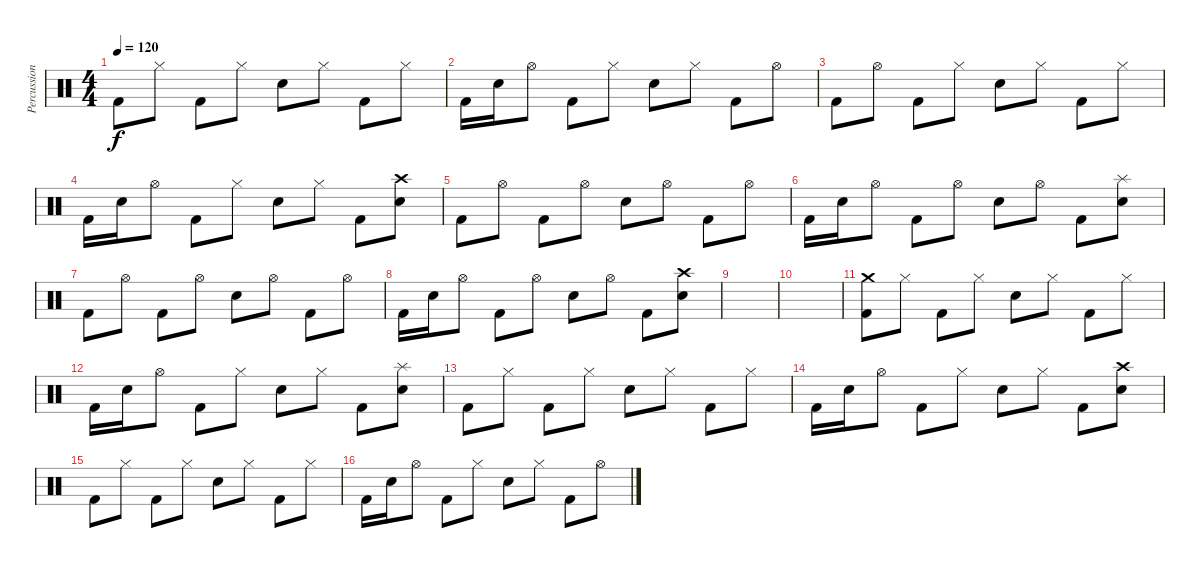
\track ("Percussion" "Percussion") {instrument percussion}
\staff {score}
\articulation defaults
\ts (4 4)
\tempo 120
\clef neutral
\ks c "Kick (hit) 2".8{dy f} "Hi-Hat (closed)".8 "Kick (hit) 2".8 "Hi-Hat (closed)".8 "Snare (hit) 2".8 "Hi-Hat (closed)".8 "Kick (hit) 2".8 "Hi-Hat (closed)".8
|
"Kick (hit) 2".16 "Snare (hit) 2".16 "Hi-Hat (open)".8 "Kick (hit) 2".8 "Hi-Hat (closed)".8 "Snare (hit) 2".8 "Hi-Hat (closed)".8 "Kick (hit) 2".8 "Hi-Hat (open)".8 |
"Kick (hit) 2".8 "Hi-Hat (open)".8 "Kick (hit) 2".8 "Hi-Hat (closed)".8 "Snare (hit) 2".8 "Hi-Hat (closed)".8 "Kick (hit) 2".8 "Hi-Hat (closed)".8 |
"Kick (hit) 2".16 "Snare (hit) 2".16 "Hi-Hat (open)".8 "Kick (hit) 2".8 "Hi-Hat (closed)".8 "Snare (hit) 2".8 "Hi-Hat (closed)".8 "Kick (hit) 2".8 ("Crash high (hit)" "Snare (hit) 2").8 |
"Kick (hit) 2".8 "Hi-Hat (open)".8 "Kick (hit) 2".8 "Hi-Hat (open)".8 "Snare (hit) 2".8 "Hi-Hat (open)".8 "Kick (hit) 2".8 "Hi-Hat (open)".8 |
"Kick (hit) 2".16 "Snare (hit) 2".16 "Hi-Hat (open)".8 "Kick (hit) 2".8 "Hi-Hat (open)".8 "Snare (hit) 2".8 "Hi-Hat (open)".8 "Kick (hit) 2".8 ("Splash (hit)" "Snare (hit) 2").8 |
"Kick (hit) 2".8 "Hi-Hat (open)".8 "Kick (hit) 2".8 "Hi-Hat (open)".8 "Snare (hit) 2".8 "Hi-Hat (open)".8 "Kick (hit) 2".8 "Hi-Hat (open)".8 |
"Kick (hit) 2".16 "Snare (hit) 2".16 "Hi-Hat (open)".8 "Kick (hit) 2".8 "Hi-Hat (open)".8 "Snare (hit) 2".8 "Hi-Hat (open)".8 "Kick (hit) 2".8 ("Crash high (hit)" "Snare (hit) 2").8 |
|
|
("Crash medium (hit)" "Kick (hit) 2").8 "Hi-Hat (closed)".8 "Kick (hit) 2".8 "Hi-Hat (closed)".8 "Snare (hit) 2".8 "Hi-Hat (closed)".8 "Kick (hit) 2".8 "Hi-Hat (closed)".8 |
"Kick (hit) 2".16 "Snare (hit) 2".16 "Hi-Hat (open)".8 "Kick (hit) 2".8 "Hi-Hat (closed)".8 "Snare (hit) 2".8 "Hi-Hat (closed)".8 "Kick (hit) 2".8 ("Splash (hit)" "Snare (hit) 2").8 |
"Kick (hit) 2".8 "Hi-Hat (closed)".8 "Kick (hit) 2".8 "Hi-Hat (closed)".8 "Snare (hit) 2".8 "Hi-Hat (closed)".8 "Kick (hit) 2".8 "Hi-Hat (closed)".8 |
"Kick (hit) 2".16 "Snare (hit) 2".16 "Hi-Hat (open)".8 "Kick (hit) 2".8 "Hi-Hat (closed)".8 "Snare (hit) 2".8 "Hi-Hat (closed)".8 "Kick (hit) 2".8 ("Crash high (hit)" "Snare (hit) 2").8 |
"Kick (hit) 2".8 "Hi-Hat (closed)".8 "Kick (hit) 2".8 "Hi-Hat (closed)".8 "Snare (hit) 2".8 "Hi-Hat (closed)".8 "Kick (hit) 2".8 "Hi-Hat (closed)".8 |
"Kick (hit) 2".16 "Snare (hit) 2".16 "Hi-Hat (open)".8 "Kick (hit) 2".8 "Hi-Hat (closed)".8 "Snare (hit) 2".8 "Hi-Hat (closed)".8 "Kick (hit) 2".8 "Hi-Hat (open)".8
